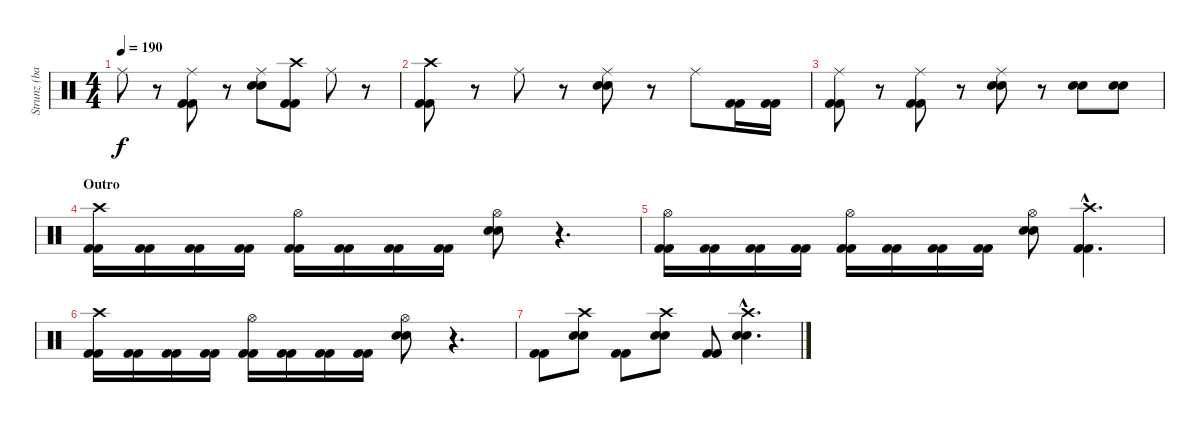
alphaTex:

\track ("Strunz (bateria)" "Strunz (ba") {instrument percussion}
\staff {score}
\articulation defaults
\ts (4 4)
\tempo 190
\clef neutral
\ks c "Ride (middle)".8{dy f}
r.8 ("Ride (middle)" "Kick (hit) 2" "Kick (hit) 2").8 r.8 ("Ride (middle)" "Snare (hit) 2" "Snare (hit) 2").8 ("Crash high (hit)" "Kick (hit) 2" "Kick (hit) 2").8 "Ride (middle)".8 r.8 |
("Crash high (hit)" "Kick (hit) 2" "Kick (hit) 2").8 r.8 "Ride (middle)".8 r.8 ("Ride (middle)" "Snare (hit) 2" "Snare (hit) 2").8 r.8 "Ride (middle)".8 ("Kick (hit) 2" "Kick (hit) 2").16 ("Kick (hit) 2" "Kick (hit) 2").16 |
("Ride (middle)" "Kick (hit) 2" "Kick (hit) 2").8 r.8 ("Ride (middle)" "Kick (hit) 2" "Kick (hit) 2").8 r.8 ("Ride (middle)" "Snare (hit) 2" "Snare (hit) 2").8 r.8 ("Snare (hit) 2" "Snare (hit) 2").8 ("Snare (hit) 2" "Snare (hit) 2").8 |
\section ("" "Outro")
("Crash high (hit)" "Kick (hit) 2" "Kick (hit) 2").16 ("Kick (hit) 2" "Kick (hit) 2").16 ("Kick (hit) 2" "Kick (hit) 2").16 ("Kick (hit) 2" "Kick (hit) 2").16 ("Hi-Hat (open)" "Kick (hit) 2" "Kick (hit) 2").16 ("Kick (hit) 2" "Kick (hit) 2").16 ("Kick (hit) 2" "Kick (hit) 2").16 ("Kick (hit) 2" "Kick (hit) 2").16 ("Hi-Hat (open)" "Snare (hit) 2" "Snare (hit) 2").8 r.4{d} |
("Hi-Hat (open)" "Kick (hit) 2" "Kick (hit) 2").16 ("Kick (hit) 2" "Kick (hit) 2").16 ("Kick (hit) 2" "Kick (hit) 2").16 ("Kick (hit) 2" "Kick (hit) 2").16 ("Hi-Hat (open)" "Kick (hit) 2" "Kick (hit) 2").16 ("Kick (hit) 2" "Kick (hit) 2").16 ("Kick (hit) 2" "Kick (hit) 2").16 ("Kick (hit) 2" "Kick (hit) 2").16 ("Hi-Hat (open)" "Snare (hit) 2" "Snare (hit) 2").8 ("Crash high (hit)"{hac} "Kick (hit) 2"{hac} "Kick (hit) 2"{hac}).4{d} |
("Crash high (hit)" "Kick (hit) 2" "Kick (hit) 2").16 ("Kick (hit) 2" "Kick (hit) 2").16 ("Kick (hit) 2" "Kick (hit) 2").16 ("Kick (hit) 2" "Kick (hit) 2").16 ("Hi-Hat (open)" "Kick (hit) 2" "Kick (hit) 2").16 ("Kick (hit) 2" "Kick (hit) 2").16 ("Kick (hit) 2" "Kick (hit) 2").16 ("Kick (hit) 2" "Kick (hit) 2").16 ("Hi-Hat (open)" "Snare (hit) 2" "Snare (hit) 2").8 r.4{d} |
("Kick (hit) 2" "Kick (hit) 2").8 ("Crash high (hit)" "Snare (hit) 2" "Snare (hit) 2").8 ("Kick (hit) 2" "Kick (hit) 2").8 ("Crash high (hit)" "Snare (hit) 2" "Snare (hit) 2").8 ("Kick (hit) 2" "Kick (hit) 2").8 ("Crash high (hit)"{hac} "Snare (hit) 2"{hac} "Snare (hit) 2"{hac}).4{d}
